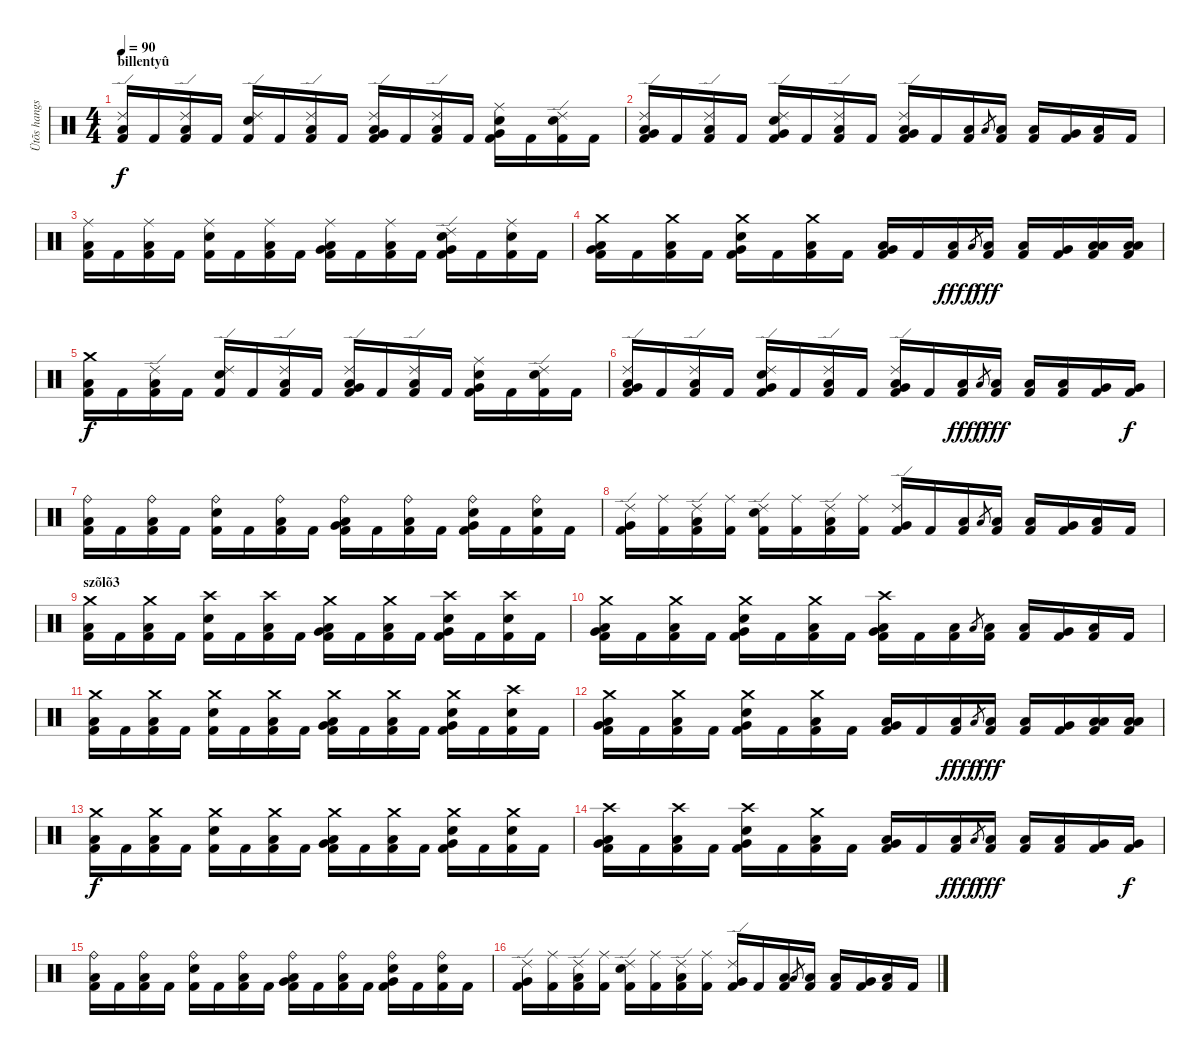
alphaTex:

\track ("Ütõs hangszer" "Ütõs hangs") {instrument percussion}
\staff {score}
\articulation defaults
\ts (4 4)
\section ("" "billentyû")
\tempo 90
\clef neutral
\ks c
("Ride (edge) 2" "Low Tom (hit)" "Kick (hit) 2").16{dy f} "Kick (hit) 2".16 ("Ride (edge) 2" "Low Tom (hit)" "Kick (hit) 2").16 "Kick (hit) 2".16 ("Ride (edge) 2" "Electric Snare (hit)" "Kick (hit) 2").16 "Kick (hit) 2".16 ("Ride (edge) 2" "Low Floor Tom (hit)" "Kick (hit) 2").16 "Kick (hit) 2".16 ("Ride (edge) 2" "Low Tom (hit)" "Very Low Tom (hit)" "Kick (hit) 2").16 "Kick (hit) 2".16 ("Ride (edge) 2" "Low Tom (hit)" "Kick (hit) 2").16 "Kick (hit) 2".16 ("Ride (middle)" "Very Low Tom (hit)" "Electric Snare (hit)" "Kick (hit) 2").16 "Kick (hit) 2".16 ("Ride (edge) 2" "Electric Snare (hit)" "Kick (hit) 2").16 "Kick (hit) 2".16 |
("Ride (edge) 2" "Low Tom (hit)" "Very Low Tom (hit)" "Kick (hit) 2").16 "Kick (hit) 2".16 ("Ride (edge) 2" "Low Tom (hit)" "Kick (hit) 2").16 "Kick (hit) 2".16 ("Ride (edge) 2" "Very Low Tom (hit)" "Electric Snare (hit)" "Kick (hit) 2").16 "Kick (hit) 2".16 ("Ride (edge) 2" "Low Floor Tom (hit)" "Kick (hit) 2").16 "Kick (hit) 2".16 ("Ride (edge) 2" "Low Tom (hit)" "Very Low Tom (hit)" "Kick (hit) 2").16 "Kick (hit) 2".16 ("Low Tom (hit)" "Kick (hit) 2").16 "Low Tom (hit)".8{gr} ("Low Tom (hit)" "Kick (hit) 2").16 ("Low Tom (hit)" "Kick (hit) 2").16 ("Very Low Tom (hit)" "Kick (hit) 2").16 ("Low Floor Tom (hit)" "Kick (hit) 2").16 "Kick (hit) 2".16 |
("Ride (middle)" "Low Tom (hit)" "Kick (hit) 2").16 "Kick (hit) 2".16 ("Ride (middle)" "Low Tom (hit)" "Kick (hit) 2").16 "Kick (hit) 2".16 ("Ride (middle)" "Electric Snare (hit)" "Kick (hit) 2").16 "Kick (hit) 2".16 ("Ride (middle)" "Low Floor Tom (hit)" "Kick (hit) 2").16 "Kick (hit) 2".16 ("Ride (middle)" "Low Tom (hit)" "Very Low Tom (hit)" "Kick (hit) 2").16 "Kick (hit) 2".16 ("Ride (middle)" "Low Tom (hit)" "Kick (hit) 2").16 "Kick (hit) 2".16 ("Ride (edge) 2" "Very Low Tom (hit)" "Electric Snare (hit)" "Kick (hit) 2").16 "Kick (hit) 2".16 ("Ride (middle)" "Electric Snare (hit)" "Kick (hit) 2").16 "Kick (hit) 2".16 |
("Crash medium (hit)" "Low Tom (hit)" "Very Low Tom (hit)" "Kick (hit) 2").16 "Kick (hit) 2".16 ("Crash medium (hit)" "Low Tom (hit)" "Kick (hit) 2").16 "Kick (hit) 2".16 ("Crash medium (hit)" "Very Low Tom (hit)" "Electric Snare (hit)" "Kick (hit) 2").16 "Kick (hit) 2".16 ("Crash medium (hit)" "Low Floor Tom (hit)" "Kick (hit) 2").16 "Kick (hit) 2".16 ("Low Tom (hit)" "Very Low Tom (hit)" "Kick (hit) 2").16 "Kick (hit) 2".16 ("Low Tom (hit)" "Kick (hit) 2").16{dy fff} "Low Tom (hit)".8{gr dy f} ("Low Tom (hit)" "Kick (hit) 2").16{dy fff} ("Low Tom (hit)" "Kick (hit) 2").16 ("Very Low Tom (hit)" "Kick (hit) 2").16 ("Low Floor Tom (hit)" "Low Floor Tom (hit)" "Kick (hit) 2").16 ("Low Floor Tom (hit)" "Low Floor Tom (hit)" "Kick (hit) 2").16 |
("Crash medium (hit)" "Low Tom (hit)" "Kick (hit) 2").16{dy f} "Kick (hit) 2".16 ("Ride (edge) 2" "Low Tom (hit)" "Kick (hit) 2").16 "Kick (hit) 2".16 ("Ride (edge) 2" "Electric Snare (hit)" "Kick (hit) 2").16 "Kick (hit) 2".16 ("Ride (edge) 2" "Low Floor Tom (hit)" "Kick (hit) 2").16 "Kick (hit) 2".16 ("Ride (edge) 2" "Low Tom (hit)" "Very Low Tom (hit)" "Kick (hit) 2").16 "Kick (hit) 2".16 ("Ride (edge) 2" "Low Tom (hit)" "Kick (hit) 2").16 "Kick (hit) 2".16 ("Ride (middle)" "Very Low Tom (hit)" "Electric Snare (hit)" "Kick (hit) 2").16 "Kick (hit) 2".16 ("Ride (edge) 2" "Electric Snare (hit)" "Kick (hit) 2").16 "Kick (hit) 2".16 |
("Ride (edge) 2" "Low Tom (hit)" "Very Low Tom (hit)" "Kick (hit) 2").16 "Kick (hit) 2".16 ("Ride (edge) 2" "Low Tom (hit)" "Kick (hit) 2").16 "Kick (hit) 2".16 ("Ride (edge) 2" "Very Low Tom (hit)" "Electric Snare (hit)" "Kick (hit) 2").16 "Kick (hit) 2".16 ("Ride (edge) 2" "Low Floor Tom (hit)" "Kick (hit) 2").16 "Kick (hit) 2".16 ("Ride (edge) 2" "Low Tom (hit)" "Very Low Tom (hit)" "Kick (hit) 2").16 "Kick (hit) 2".16 ("Low Floor Tom (hit)" "Kick (hit) 2").16{dy fff} "Low Tom (hit)".8{gr dy f} ("Low Floor Tom (hit)" "Kick (hit) 2").16{dy fff} ("Low Tom (hit)" "Kick (hit) 2").16 ("Low Tom (hit)" "Kick (hit) 2").16 ("Very Low Tom (hit)" "Kick (hit) 2").16 ("Very Low Tom (hit)" "Kick (hit) 2").16{dy f} |
("Ride (bell)" "Low Tom (hit)" "Kick (hit) 2").16 "Kick (hit) 2".16 ("Ride (bell)" "Low Tom (hit)" "Kick (hit) 2").16 "Kick (hit) 2".16 ("Ride (bell)" "Electric Snare (hit)" "Kick (hit) 2").16 "Kick (hit) 2".16 ("Ride (bell)" "Low Floor Tom (hit)" "Kick (hit) 2").16 "Kick (hit) 2".16 ("Ride (bell)" "Low Tom (hit)" "Very Low Tom (hit)" "Kick (hit) 2").16 "Kick (hit) 2".16 ("Ride (bell)" "Low Tom (hit)" "Kick (hit) 2").16 "Kick (hit) 2".16 ("Ride (bell)" "Very Low Tom (hit)" "Electric Snare (hit)" "Kick (hit) 2").16 "Kick (hit) 2".16 ("Ride (bell)" "Electric Snare (hit)" "Kick (hit) 2").16 "Kick (hit) 2".16 |
("Ride (edge) 2" "Very Low Tom (hit)" "Kick (hit) 2").16 ("Ride (middle)" "Kick (hit) 2").16 ("Ride (edge) 2" "Low Tom (hit)" "Kick (hit) 2").16 ("Ride (middle)" "Kick (hit) 2").16 ("Ride (edge) 2" "Electric Snare (hit)" "Kick (hit) 2").16 ("Ride (middle)" "Kick (hit) 2").16 ("Ride (edge) 2" "Low Floor Tom (hit)" "Kick (hit) 2").16 ("Ride (middle)" "Kick (hit) 2").16 ("Ride (edge) 2" "Very Low Tom (hit)" "Kick (hit) 2").16 "Kick (hit) 2".16 ("Low Tom (hit)" "Kick (hit) 2").16 "Low Tom (hit)".8{gr} ("Low Tom (hit)" "Kick (hit) 2").16 ("Low Tom (hit)" "Kick (hit) 2").16 ("Very Low Tom (hit)" "Kick (hit) 2").16 ("Low Floor Tom (hit)" "Kick (hit) 2").16 "Kick (hit) 2".16 |
\section ("" "szõlõ3")
("Crash medium (hit)" "Low Tom (hit)" "Kick (hit) 2").16 "Kick (hit) 2".16 ("Crash medium (hit)" "Low Tom (hit)" "Kick (hit) 2").16 "Kick (hit) 2".16 ("Crash high (hit)" "Electric Snare (hit)" "Kick (hit) 2").16 "Kick (hit) 2".16 ("Crash high (hit)" "Low Floor Tom (hit)" "Kick (hit) 2").16 "Kick (hit) 2".16 ("Crash medium (hit)" "Low Tom (hit)" "Very Low Tom (hit)" "Kick (hit) 2").16 "Kick (hit) 2".16 ("Crash medium (hit)" "Low Tom (hit)" "Kick (hit) 2").16 "Kick (hit) 2".16 ("Crash high (hit)" "Very Low Tom (hit)" "Electric Snare (hit)" "Kick (hit) 2").16 "Kick (hit) 2".16 ("Crash high (hit)" "Electric Snare (hit)" "Kick (hit) 2").16 "Kick (hit) 2".16 |
("Crash medium (hit)" "Low Tom (hit)" "Very Low Tom (hit)" "Kick (hit) 2").16 "Kick (hit) 2".16 ("Crash medium (hit)" "Low Tom (hit)" "Kick (hit) 2").16 "Kick (hit) 2".16 ("Crash medium (hit)" "Very Low Tom (hit)" "Electric Snare (hit)" "Kick (hit) 2").16 "Kick (hit) 2".16 ("Crash medium (hit)" "Low Floor Tom (hit)" "Kick (hit) 2").16 "Kick (hit) 2".16 ("Crash high (hit)" "Low Tom (hit)" "Very Low Tom (hit)" "Kick (hit) 2").16 "Kick (hit) 2".16 ("Low Tom (hit)" "Kick (hit) 2").16 "Low Tom (hit)".8{gr} ("Low Tom (hit)" "Kick (hit) 2").16 ("Low Tom (hit)" "Kick (hit) 2").16 ("Very Low Tom (hit)" "Kick (hit) 2").16 ("Low Floor Tom (hit)" "Kick (hit) 2").16 "Kick (hit) 2".16 |
("Crash medium (hit)" "Low Tom (hit)" "Kick (hit) 2").16 "Kick (hit) 2".16 ("Crash medium (hit)" "Low Tom (hit)" "Kick (hit) 2").16 "Kick (hit) 2".16 ("Crash medium (hit)" "Electric Snare (hit)" "Kick (hit) 2").16 "Kick (hit) 2".16 ("Crash medium (hit)" "Low Floor Tom (hit)" "Kick (hit) 2").16 "Kick (hit) 2".16 ("Crash medium (hit)" "Low Tom (hit)" "Very Low Tom (hit)" "Kick (hit) 2").16 "Kick (hit) 2".16 ("Crash medium (hit)" "Low Tom (hit)" "Kick (hit) 2").16 "Kick (hit) 2".16 ("Crash medium (hit)" "Very Low Tom (hit)" "Electric Snare (hit)" "Kick (hit) 2").16 "Kick (hit) 2".16 ("Crash high (hit)" "Electric Snare (hit)" "Kick (hit) 2").16 "Kick (hit) 2".16 |
("Crash medium (hit)" "Low Tom (hit)" "Very Low Tom (hit)" "Kick (hit) 2").16 "Kick (hit) 2".16 ("Crash medium (hit)" "Low Tom (hit)" "Kick (hit) 2").16 "Kick (hit) 2".16 ("Crash medium (hit)" "Very Low Tom (hit)" "Electric Snare (hit)" "Kick (hit) 2").16 "Kick (hit) 2".16 ("Crash medium (hit)" "Low Floor Tom (hit)" "Kick (hit) 2").16 "Kick (hit) 2".16 ("Low Tom (hit)" "Very Low Tom (hit)" "Kick (hit) 2").16 "Kick (hit) 2".16 ("Low Tom (hit)" "Kick (hit) 2").16{dy fff} "Low Tom (hit)".8{gr dy f} ("Low Tom (hit)" "Kick (hit) 2").16{dy fff} ("Low Tom (hit)" "Kick (hit) 2").16 ("Very Low Tom (hit)" "Kick (hit) 2").16 ("Low Floor Tom (hit)" "Low Floor Tom (hit)" "Kick (hit) 2").16 ("Low Floor Tom (hit)" "Low Floor Tom (hit)" "Kick (hit) 2").16 |
("Crash medium (hit)" "Low Tom (hit)" "Kick (hit) 2").16{dy f} "Kick (hit) 2".16 ("Crash medium (hit)" "Low Tom (hit)" "Kick (hit) 2").16 "Kick (hit) 2".16 ("Crash medium (hit)" "Electric Snare (hit)" "Kick (hit) 2").16 "Kick (hit) 2".16 ("Crash medium (hit)" "Low Floor Tom (hit)" "Kick (hit) 2").16 "Kick (hit) 2".16 ("Crash medium (hit)" "Low Tom (hit)" "Very Low Tom (hit)" "Kick (hit) 2").16 "Kick (hit) 2".16 ("Crash medium (hit)" "Low Tom (hit)" "Kick (hit) 2").16 "Kick (hit) 2".16 ("Crash medium (hit)" "Very Low Tom (hit)" "Electric Snare (hit)" "Kick (hit) 2").16 "Kick (hit) 2".16 ("Crash medium (hit)" "Electric Snare (hit)" "Kick (hit) 2").16 "Kick (hit) 2".16 |
("Crash high (hit)" "Low Tom (hit)" "Very Low Tom (hit)" "Kick (hit) 2").16 "Kick (hit) 2".16 ("Crash high (hit)" "Low Tom (hit)" "Kick (hit) 2").16 "Kick (hit) 2".16 ("Crash high (hit)" "Very Low Tom (hit)" "Electric Snare (hit)" "Kick (hit) 2").16 "Kick (hit) 2".16 ("Crash medium (hit)" "Low Floor Tom (hit)" "Kick (hit) 2").16 "Kick (hit) 2".16 ("Low Tom (hit)" "Very Low Tom (hit)" "Kick (hit) 2").16 "Kick (hit) 2".16 ("Low Floor Tom (hit)" "Kick (hit) 2").16{dy fff} "Low Tom (hit)".8{gr dy f} ("Low Floor Tom (hit)" "Kick (hit) 2").16{dy fff} ("Low Tom (hit)" "Kick (hit) 2").16 ("Low Tom (hit)" "Kick (hit) 2").16 ("Very Low Tom (hit)" "Kick (hit) 2").16 ("Very Low Tom (hit)" "Kick (hit) 2").16{dy f} |
("Ride (bell)" "Low Tom (hit)" "Kick (hit) 2").16 "Kick (hit) 2".16 ("Ride (bell)" "Low Tom (hit)" "Kick (hit) 2").16 "Kick (hit) 2".16 ("Ride (bell)" "Electric Snare (hit)" "Kick (hit) 2").16 "Kick (hit) 2".16 ("Ride (bell)" "Low Floor Tom (hit)" "Kick (hit) 2").16 "Kick (hit) 2".16 ("Ride (bell)" "Low Tom (hit)" "Very Low Tom (hit)" "Kick (hit) 2").16 "Kick (hit) 2".16 ("Ride (bell)" "Low Tom (hit)" "Kick (hit) 2").16 "Kick (hit) 2".16 ("Ride (bell)" "Very Low Tom (hit)" "Electric Snare (hit)" "Kick (hit) 2").16 "Kick (hit) 2".16 ("Ride (bell)" "Electric Snare (hit)" "Kick (hit) 2").16 "Kick (hit) 2".16 |
("Ride (edge) 2" "Very Low Tom (hit)" "Kick (hit) 2").16 ("Ride (middle)" "Kick (hit) 2").16 ("Ride (edge) 2" "Low Tom (hit)" "Kick (hit) 2").16 ("Ride (middle)" "Kick (hit) 2").16 ("Ride (edge) 2" "Electric Snare (hit)" "Kick (hit) 2").16 ("Ride (middle)" "Kick (hit) 2").16 ("Ride (edge) 2" "Low Floor Tom (hit)" "Kick (hit) 2").16 ("Ride (middle)" "Kick (hit) 2").16 ("Ride (edge) 2" "Very Low Tom (hit)" "Kick (hit) 2").16 "Kick (hit) 2".16 ("Low Tom (hit)" "Kick (hit) 2").16 "Low Tom (hit)".8{gr} ("Low Tom (hit)" "Kick (hit) 2").16 ("Low Tom (hit)" "Kick (hit) 2").16 ("Very Low Tom (hit)" "Kick (hit) 2").16 ("Low Floor Tom (hit)" "Kick (hit) 2").16 "Kick (hit) 2".16
